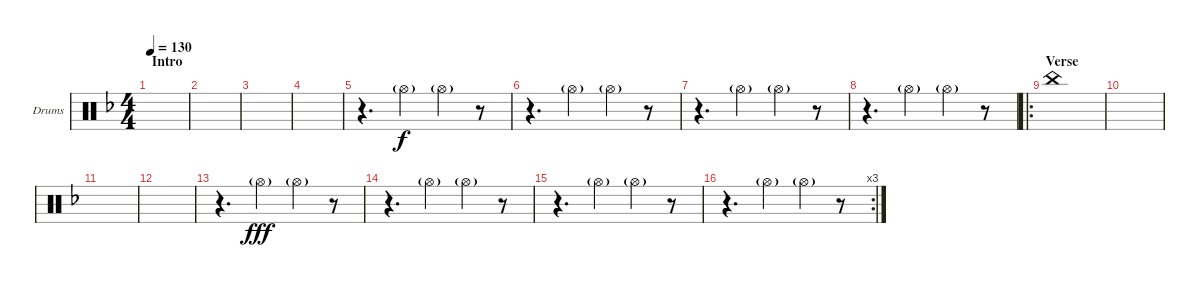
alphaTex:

\defaultSystemsLayout 4
\bracketExtendMode groupsimilarinstruments
\firstSystemTrackNameOrientation horizontal
\otherSystemsTrackNameOrientation horizontal
\track ("Mark" "Drums") {instrument percussion}
\staff {score}
\articulation defaults
\ts (4 4)
\section ("" "Intro")
\tempo 130
\clef neutral
\scale
0.502222
\ks f
|
\scale
0.248889 |
\scale
0.248889 |
\scale
0.333333 |
\scale
0.333333 r.4{d} "Hi-Hat (open)"{g}.4 "Hi-Hat (open)"{g}.4 r.8 |
\scale
0.333333 r.4{d} "Hi-Hat (open)"{g}.4 "Hi-Hat (open)"{g}.4 r.8 |
\scale
0.311111 r.4{d} "Hi-Hat (open)"{g}.4 "Hi-Hat (open)"{g}.4 r.8 |
\scale
0.311111 r.4{d} "Hi-Hat (open)"{g}.4 "Hi-Hat (open)"{g}.4 r.8 |
\ro
\section ("" "Verse")
\scale
0.377778 "China (hit)".1{dy f} |
\scale
0.333333 |
\scale
0.333333 |
\scale
0.333333 |
\scale
0.333333 r.4{d} "Hi-Hat (open)"{g}.4{dy fff} "Hi-Hat (open)"{g}.4 r.8 |
\scale
0.333333 r.4{d} "Hi-Hat (open)"{g}.4 "Hi-Hat (open)"{g}.4 r.8 |
\scale
0.333333 r.4{d} "Hi-Hat (open)"{g}.4 "Hi-Hat (open)"{g}.4 r.8 |
\rc 3
\scale
0.333333 r.4{d} "Hi-Hat (open)"{g}.4 "Hi-Hat (open)"{g}.4 r.8
